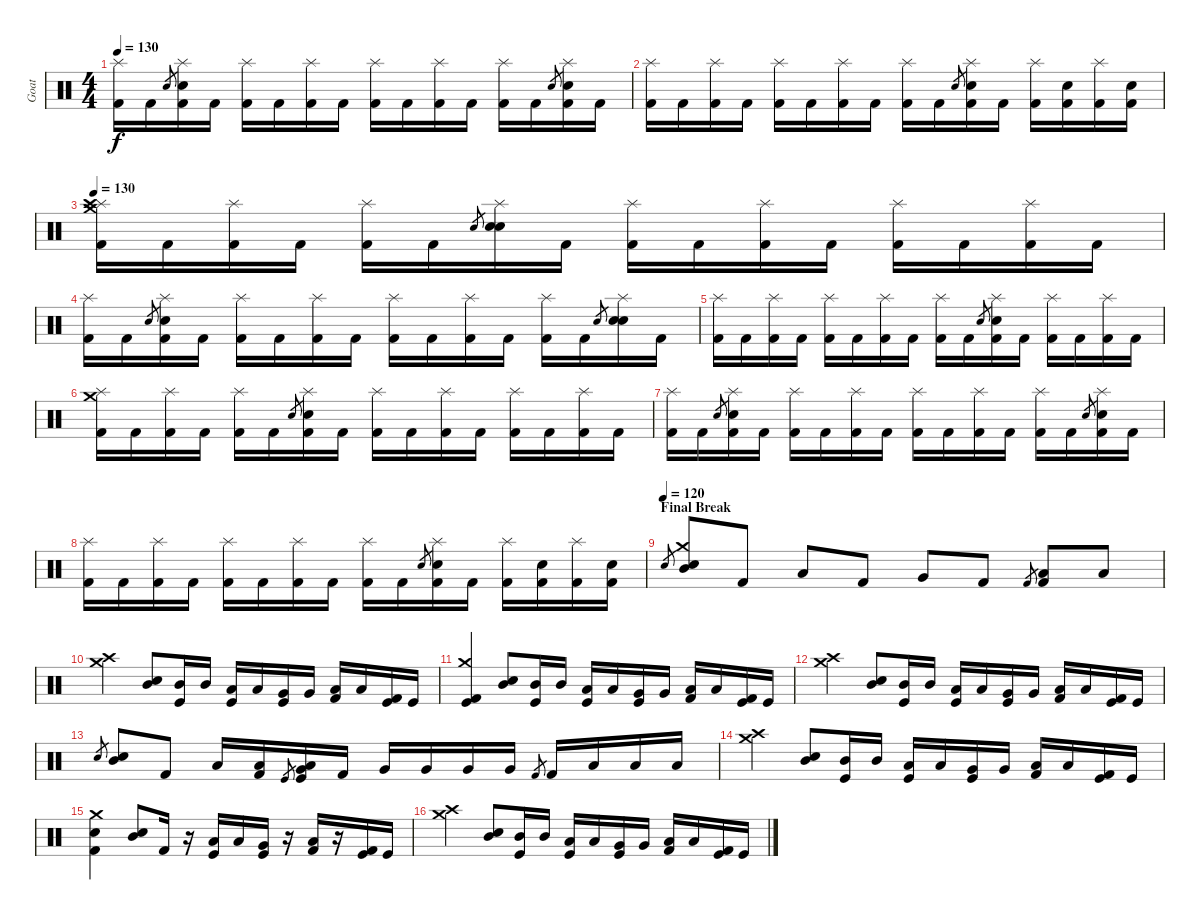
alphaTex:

\track ("Goat" "Goat") {instrument percussion}
\staff {score}
\articulation defaults
\ts (4 4)
\tempo 130
\clef neutral
\ks c
("Splash (hit)" "Kick (hit) 2").16{dy f} "Kick (hit) 2".16 "Snare (hit) 2".8{gr} ("Splash (hit)" "Snare (hit) 2" "Kick (hit) 2").16 "Kick (hit) 2".16 ("Splash (hit)" "Kick (hit) 2").16 "Kick (hit) 2".16 ("Splash (hit)" "Kick (hit) 2").16 "Kick (hit) 2".16 ("Splash (hit)" "Kick (hit) 2").16 "Kick (hit) 2".16 ("Splash (hit)" "Kick (hit) 2").16 "Kick (hit) 2".16 ("Splash (hit)" "Kick (hit) 2").16 "Kick (hit) 2".16 "Snare (hit) 2".8{gr} ("Splash (hit)" "Snare (hit) 2" "Kick (hit) 2").16 "Kick (hit) 2".16 |
("Splash (hit)" "Kick (hit) 2").16 "Kick (hit) 2".16 ("Splash (hit)" "Kick (hit) 2").16 "Kick (hit) 2".16 ("Splash (hit)" "Kick (hit) 2").16 "Kick (hit) 2".16 ("Splash (hit)" "Kick (hit) 2").16 "Kick (hit) 2".16 ("Splash (hit)" "Kick (hit) 2").16 "Kick (hit) 2".16 "Snare (hit) 2".8{gr} ("Splash (hit)" "Snare (hit) 2" "Kick (hit) 2").16 "Kick (hit) 2".16 ("Splash (hit)" "Kick (hit) 2").16 ("Snare (hit) 2" "Kick (hit) 2").16 ("Splash (hit)" "Kick (hit) 2").16 ("Snare (hit) 2" "Kick (hit) 2").16 |
\tempo 130
("Splash (hit)" "Crash high (hit)" "Crash medium (hit)" "Kick (hit) 2").16 "Kick (hit) 2".16 ("Splash (hit)" "Kick (hit) 2").16 "Kick (hit) 2".16 ("Splash (hit)" "Kick (hit) 2").16 "Kick (hit) 2".16 "Snare (hit) 2".8{gr} ("Splash (hit)" "Snare (hit) 2" "Snare (hit) 2").16 "Kick (hit) 2".16 ("Splash (hit)" "Kick (hit) 2").16 "Kick (hit) 2".16 ("Splash (hit)" "Kick (hit) 2").16 "Kick (hit) 2".16 ("Splash (hit)" "Kick (hit) 2").16 "Kick (hit) 2".16 ("Splash (hit)" "Kick (hit) 2").16 "Kick (hit) 2".16 |
("Splash (hit)" "Kick (hit) 2").16 "Kick (hit) 2".16 "Snare (hit) 2".8{gr} ("Splash (hit)" "Snare (hit) 2" "Kick (hit) 2").16 "Kick (hit) 2".16 ("Splash (hit)" "Kick (hit) 2").16 "Kick (hit) 2".16 ("Splash (hit)" "Kick (hit) 2").16 "Kick (hit) 2".16 ("Splash (hit)" "Kick (hit) 2").16 "Kick (hit) 2".16 ("Splash (hit)" "Kick (hit) 2").16 "Kick (hit) 2".16 ("Splash (hit)" "Kick (hit) 2").16 "Kick (hit) 2".16 "Snare (hit) 2".8{gr} ("Splash (hit)" "Snare (hit) 2" "Snare (hit) 2").16 "Kick (hit) 2".16 |
("Splash (hit)" "Kick (hit) 2").16 "Kick (hit) 2".16 ("Splash (hit)" "Kick (hit) 2").16 "Kick (hit) 2".16 ("Splash (hit)" "Kick (hit) 2").16 "Kick (hit) 2".16 ("Splash (hit)" "Kick (hit) 2").16 "Kick (hit) 2".16 ("Splash (hit)" "Kick (hit) 2").16 "Kick (hit) 2".16 "Snare (hit) 2".8{gr} ("Splash (hit)" "Snare (hit) 2" "Kick (hit) 2").16 "Kick (hit) 2".16 ("Splash (hit)" "Kick (hit) 2").16 "Kick (hit) 2".16 ("Splash (hit)" "Kick (hit) 2").16 "Kick (hit) 2".16 |
("Splash (hit)" "Crash medium (hit)" "Kick (hit) 2").16 "Kick (hit) 2".16 ("Splash (hit)" "Kick (hit) 2").16 "Kick (hit) 2".16 ("Splash (hit)" "Kick (hit) 2").16 "Kick (hit) 2".16 "Snare (hit) 2".8{gr} ("Splash (hit)" "Snare (hit) 2" "Kick (hit) 2").16 "Kick (hit) 2".16 ("Splash (hit)" "Kick (hit) 2").16 "Kick (hit) 2".16 ("Splash (hit)" "Kick (hit) 2").16 "Kick (hit) 2".16 ("Splash (hit)" "Kick (hit) 2").16 "Kick (hit) 2".16 ("Splash (hit)" "Kick (hit) 2").16 "Kick (hit) 2".16 |
("Splash (hit)" "Kick (hit) 2").16 "Kick (hit) 2".16 "Snare (hit) 2".8{gr} ("Splash (hit)" "Snare (hit) 2" "Kick (hit) 2").16 "Kick (hit) 2".16 ("Splash (hit)" "Kick (hit) 2").16 "Kick (hit) 2".16 ("Splash (hit)" "Kick (hit) 2").16 "Kick (hit) 2".16 ("Splash (hit)" "Kick (hit) 2").16 "Kick (hit) 2".16 ("Splash (hit)" "Kick (hit) 2").16 "Kick (hit) 2".16 ("Splash (hit)" "Kick (hit) 2").16 "Kick (hit) 2".16 "Snare (hit) 2".8{gr} ("Splash (hit)" "Snare (hit) 2" "Kick (hit) 2").16 "Kick (hit) 2".16 |
("Splash (hit)" "Kick (hit) 2").16 "Kick (hit) 2".16 ("Splash (hit)" "Kick (hit) 2").16 "Kick (hit) 2".16 ("Splash (hit)" "Kick (hit) 2").16 "Kick (hit) 2".16 ("Splash (hit)" "Kick (hit) 2").16 "Kick (hit) 2".16 ("Splash (hit)" "Kick (hit) 2").16 "Kick (hit) 2".16 "Snare (hit) 2".8{gr} ("Splash (hit)" "Snare (hit) 2" "Kick (hit) 2").16 "Kick (hit) 2".16 ("Splash (hit)" "Kick (hit) 2").16 ("Snare (hit) 2" "Kick (hit) 2").16 ("Splash (hit)" "Kick (hit) 2").16 ("Snare (hit) 2" "Kick (hit) 2").16 |
\section ("" "Final Break")
\tempo (120)
"Snare (hit) 2".8{gr} ("Snare (hit) 2" "Mid Tom (hit)" "Crash medium (hit)").8 "Kick (hit) 2".8 "Low Tom (hit)".8 "Kick (hit) 2".8 "Very Low Tom (hit)".8 "Kick (hit) 2".8 "Kick (hit) 2".8{gr} ("Kick (hit) 2" "Low Floor Tom (hit)").8 "Low Floor Tom (hit)".8 |
("Crash medium (hit)" "Crash high (hit)").4 ("Snare (hit) 2" "Mid Tom (hit)").8 ("Kick (hit)" "Mid Tom (hit)").16 "Mid Tom (hit)".16 ("Kick (hit)" "Low Tom (hit)").16 "Low Tom (hit)".16 ("Kick (hit)" "Very Low Tom (hit)").16 "Very Low Tom (hit)".16 ("Kick (hit) 2" "Low Floor Tom (hit)").16 "Low Floor Tom (hit)".16 ("Kick (hit) 2" "Kick (hit)").16 "Kick (hit)".16 |
("Crash medium (hit)" "Kick (hit)" "Kick (hit) 2").4 ("Snare (hit) 2" "Mid Tom (hit)").8 ("Kick (hit)" "Mid Tom (hit)").16 "Mid Tom (hit)".16 ("Kick (hit)" "Low Tom (hit)").16 "Low Tom (hit)".16 ("Kick (hit)" "Very Low Tom (hit)").16 "Very Low Tom (hit)".16 ("Kick (hit) 2" "Low Floor Tom (hit)").16 "Low Floor Tom (hit)".16 ("Kick (hit) 2" "Kick (hit)").16 "Kick (hit)".16 |
("Crash high (hit)" "Crash medium (hit)").4 ("Snare (hit) 2" "Mid Tom (hit)").8 ("Kick (hit)" "Mid Tom (hit)").16 "Mid Tom (hit)".16 ("Kick (hit)" "Low Tom (hit)").16 "Low Tom (hit)".16 ("Kick (hit)" "Very Low Tom (hit)").16 "Very Low Tom (hit)".16 ("Kick (hit) 2" "Low Floor Tom (hit)").16 "Low Floor Tom (hit)".16 ("Kick (hit) 2" "Kick (hit)").16 "Kick (hit)".16 |
"Snare (hit) 2".8{gr} ("Snare (hit) 2" "Mid Tom (hit)").8 "Kick (hit) 2".8 "Low Tom (hit)".16 ("Low Tom (hit)" "Kick (hit) 2").16 "Kick (hit)".8{gr} ("Kick (hit)" "Low Tom (hit)" "Very Low Tom (hit)").16 "Kick (hit) 2".16 "Very Low Tom (hit)".16 "Very Low Tom (hit)".16 "Very Low Tom (hit)".16 "Very Low Tom (hit)".16 "Kick (hit) 2".8{gr} "Kick (hit) 2".16 "Low Floor Tom (hit)".16 "Low Floor Tom (hit)".16 "Low Floor Tom (hit)".16 |
("Crash medium (hit)" "Crash high (hit)").4 ("Snare (hit) 2" "Mid Tom (hit)").8 ("Kick (hit)" "Mid Tom (hit)").16 "Mid Tom (hit)".16 ("Kick (hit)" "Low Tom (hit)").16 "Low Tom (hit)".16 ("Kick (hit)" "Very Low Tom (hit)").16 "Very Low Tom (hit)".16 ("Kick (hit) 2" "Low Floor Tom (hit)").16 "Low Floor Tom (hit)".16 ("Kick (hit) 2" "Kick (hit)").16 "Kick (hit)".16 |
("Kick (hit) 2" "Crash medium (hit)" "Snare (hit) 2").4 ("Snare (hit) 2" "Mid Tom (hit)").8 "Kick (hit) 2".16 r.16 ("Kick (hit)" "Low Tom (hit)").16 "Low Tom (hit)".16 ("Kick (hit)" "Very Low Tom (hit)").16 r.16 ("Kick (hit) 2" "Low Floor Tom (hit)").16 r.16 ("Kick (hit) 2" "Kick (hit)").16 "Kick (hit)".16 |
("Crash medium (hit)" "Crash high (hit)").4 ("Snare (hit) 2" "Mid Tom (hit)").8 ("Kick (hit)" "Mid Tom (hit)").16 "Mid Tom (hit)".16 ("Kick (hit)" "Low Tom (hit)").16 "Low Tom (hit)".16 ("Kick (hit)" "Very Low Tom (hit)").16 "Very Low Tom (hit)".16 ("Kick (hit) 2" "Low Floor Tom (hit)").16 "Low Floor Tom (hit)".16 ("Kick (hit) 2" "Kick (hit)").16 "Kick (hit)".16
